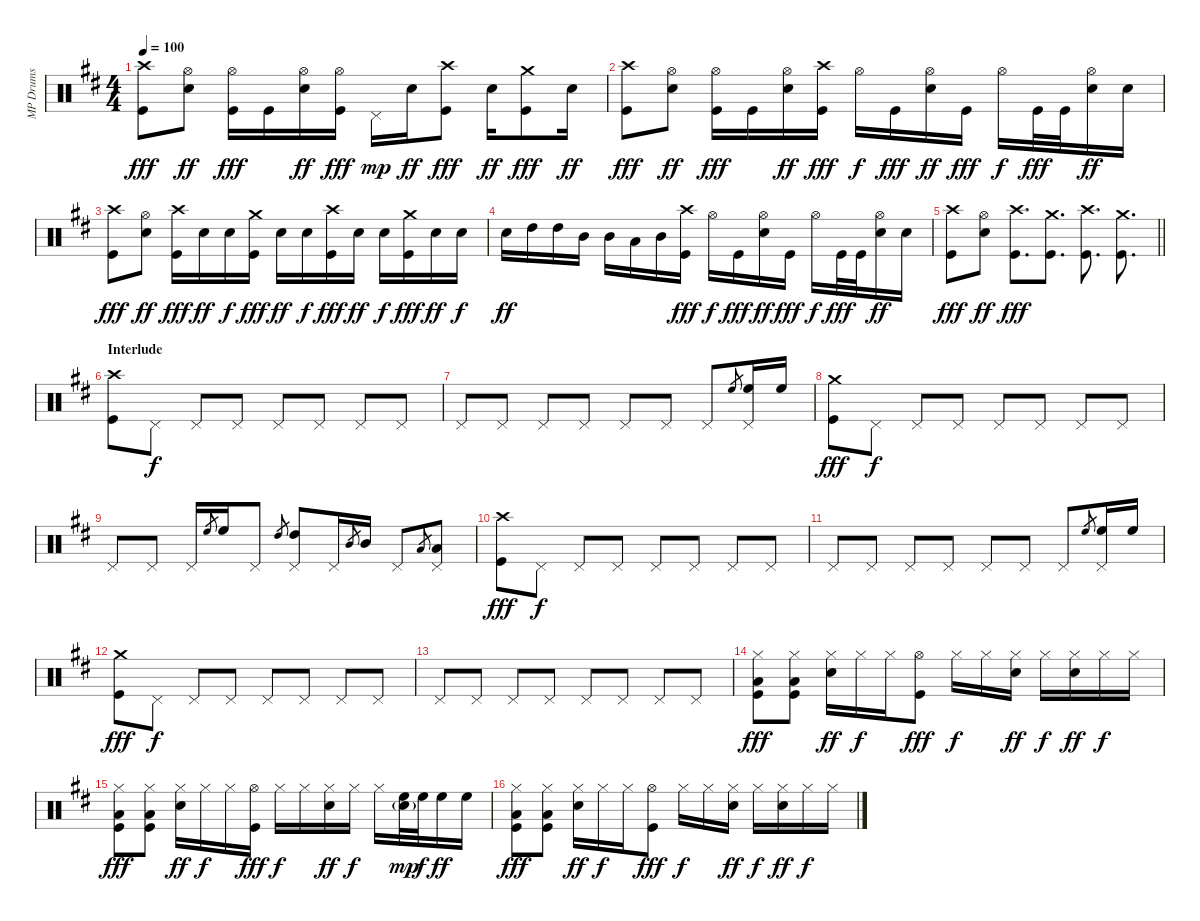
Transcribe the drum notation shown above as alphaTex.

\track ("MP Drums" "MP Drums") {instrument percussion}
\staff {score}
\articulation defaults
\ts (4 4)
\tempo 100
\clef neutral
\ks d
("Crash high (hit)" "Kick (hit)").8{dy fff} ("Hi-Hat (open)" "Snare (hit) 2").8{dy ff} ("Hi-Hat (open)" "Kick (hit)").16{dy fff} "Kick (hit)".16 ("Hi-Hat (open)" "Snare (hit) 2").16{dy ff} ("Hi-Hat (open)" "Kick (hit)").16{dy fff} "Pedal Hi-Hat (hit)".16{dy mp} "Snare (hit) 2".16{dy ff} ("Crash high (hit)" "Kick (hit)").8{dy fff} "Snare (hit) 2".16{dy ff} ("Crash medium (hit)" "Kick (hit)").8{dy fff} "Snare (hit) 2".16{dy ff} |
("Crash high (hit)" "Kick (hit)").8{dy fff} ("Hi-Hat (open)" "Snare (hit) 2").8{dy ff} ("Hi-Hat (open)" "Kick (hit)").16{dy fff} "Kick (hit)".16 ("Hi-Hat (open)" "Snare (hit) 2").16{dy ff} ("Crash high (hit)" "Kick (hit)").16{dy fff} "Hi-Hat (open)".16{dy f} "Kick (hit)".16{dy fff} ("Hi-Hat (open)" "Snare (hit) 2").16{dy ff} "Kick (hit)".16{dy fff} "Hi-Hat (open)".16{dy f} "Kick (hit)".32{dy fff} "Kick (hit)".32 ("Hi-Hat (open)" "Snare (hit) 2").16{dy ff} "Snare (hit) 2".16 |
("Crash high (hit)" "Kick (hit)").8{dy fff} ("Hi-Hat (open)" "Snare (hit) 2").8{dy ff} ("Crash high (hit)" "Kick (hit)").16{dy fff} "Snare (hit) 2".16{dy ff} "Snare (hit) 2".16{dy f} ("Crash medium (hit)" "Kick (hit)").16{dy fff} "Snare (hit) 2".16{dy ff} "Snare (hit) 2".16{dy f} ("Crash high (hit)" "Kick (hit)").16{dy fff} "Snare (hit) 2".16{dy ff} "Snare (hit) 2".16{dy f} ("Crash medium (hit)" "Kick (hit)").16{dy fff} "Snare (hit) 2".16{dy ff} "Snare (hit) 2".16{dy f} |
"Snare (hit) 2".16{dy ff} "High Tom (hit)".16 "High Tom (hit)".16 "Mid Tom (hit)".16 "Mid Tom (hit)".16 "Low Tom (hit)".16 "Mid Tom (hit)".16 ("Crash high (hit)" "Kick (hit)").16{dy fff} "Hi-Hat (open)".16{dy f} "Kick (hit)".16{dy fff} ("Hi-Hat (open)" "Snare (hit) 2").16{dy ff} "Kick (hit)".16{dy fff} "Hi-Hat (open)".16{dy f} "Kick (hit)".32{dy fff} "Kick (hit)".32 ("Hi-Hat (open)" "Snare (hit) 2").16{dy ff} "Snare (hit) 2".16 |
\barLineRight lightlight
("Crash high (hit)" "Kick (hit)").8{dy fff} ("Hi-Hat (open)" "Snare (hit) 2").8{dy ff} ("Crash high (hit)" "Kick (hit)").8{d dy fff} ("Crash medium (hit)" "Kick (hit)").8{d} ("Crash high (hit)" "Kick (hit)").8{d} ("Crash medium (hit)" "Kick (hit)").8{d} |
\section ("" "Interlude")
("Crash high (hit)" "Kick (hit)").8 "Pedal Hi-Hat (hit)".8{dy f} "Pedal Hi-Hat (hit)".8 "Pedal Hi-Hat (hit)".8 "Pedal Hi-Hat (hit)".8 "Pedal Hi-Hat (hit)".8 "Pedal Hi-Hat (hit)".8 "Pedal Hi-Hat (hit)".8 |
"Pedal Hi-Hat (hit)".8 "Pedal Hi-Hat (hit)".8 "Pedal Hi-Hat (hit)".8 "Pedal Hi-Hat (hit)".8 "Pedal Hi-Hat (hit)".8 "Pedal Hi-Hat (hit)".8 "Pedal Hi-Hat (hit)".8 "High Floor Tom (hit)".8{gr} ("High Floor Tom (hit)" "Pedal Hi-Hat (hit)").16 "High Floor Tom (hit)".16 |
("Crash medium (hit)" "Kick (hit)").8{dy fff} "Pedal Hi-Hat (hit)".8{dy f} "Pedal Hi-Hat (hit)".8 "Pedal Hi-Hat (hit)".8 "Pedal Hi-Hat (hit)".8 "Pedal Hi-Hat (hit)".8 "Pedal Hi-Hat (hit)".8 "Pedal Hi-Hat (hit)".8 |
"Pedal Hi-Hat (hit)".8 "Pedal Hi-Hat (hit)".8 "Pedal Hi-Hat (hit)".16 "High Floor Tom (hit)".8{gr} "High Floor Tom (hit)".16 "Pedal Hi-Hat (hit)".8 "High Tom (hit)".8{gr} ("High Tom (hit)" "Pedal Hi-Hat (hit)").8 "Pedal Hi-Hat (hit)".16 "Mid Tom (hit)".8{gr} "Mid Tom (hit)".16 "Pedal Hi-Hat (hit)".8 "Low Tom (hit)".8{gr} ("Low Tom (hit)" "Pedal Hi-Hat (hit)").8 |
("Crash high (hit)" "Kick (hit)").8{dy fff} "Pedal Hi-Hat (hit)".8{dy f} "Pedal Hi-Hat (hit)".8 "Pedal Hi-Hat (hit)".8 "Pedal Hi-Hat (hit)".8 "Pedal Hi-Hat (hit)".8 "Pedal Hi-Hat (hit)".8 "Pedal Hi-Hat (hit)".8 |
"Pedal Hi-Hat (hit)".8 "Pedal Hi-Hat (hit)".8 "Pedal Hi-Hat (hit)".8 "Pedal Hi-Hat (hit)".8 "Pedal Hi-Hat (hit)".8 "Pedal Hi-Hat (hit)".8 "Pedal Hi-Hat (hit)".8 "High Floor Tom (hit)".8{gr} ("High Floor Tom (hit)" "Pedal Hi-Hat (hit)").16 "High Floor Tom (hit)".16 |
("Crash medium (hit)" "Kick (hit)").8{dy fff} "Pedal Hi-Hat (hit)".8{dy f} "Pedal Hi-Hat (hit)".8 "Pedal Hi-Hat (hit)".8 "Pedal Hi-Hat (hit)".8 "Pedal Hi-Hat (hit)".8 "Pedal Hi-Hat (hit)".8 "Pedal Hi-Hat (hit)".8 |
"Pedal Hi-Hat (hit)".8 "Pedal Hi-Hat (hit)".8 "Pedal Hi-Hat (hit)".8 "Pedal Hi-Hat (hit)".8 "Pedal Hi-Hat (hit)".8 "Pedal Hi-Hat (hit)".8 "Pedal Hi-Hat (hit)".8 "Pedal Hi-Hat (hit)".8 |
("Hi-Hat (closed)" "Low Tom (hit)" "Kick (hit)").8{dy fff} ("Hi-Hat (closed)" "Low Tom (hit)" "Kick (hit)").8 ("Hi-Hat (closed)" "Snare (hit) 2").16{dy ff} "Hi-Hat (closed)".16{dy f} "Hi-Hat (closed)".16 ("Hi-Hat (open)" "Kick (hit)").8{dy fff} "Hi-Hat (closed)".16{dy f} "Hi-Hat (closed)".16 ("Hi-Hat (closed)" "Snare (hit) 2").16{dy ff} "Hi-Hat (closed)".16{dy f} ("Hi-Hat (closed)" "Snare (hit) 2").16{dy ff} "Hi-Hat (closed)".16{dy f} "Hi-Hat (closed)".16 |
("Hi-Hat (closed)" "Low Tom (hit)" "Kick (hit)").8{dy fff} ("Hi-Hat (closed)" "Low Tom (hit)" "Kick (hit)").8 ("Hi-Hat (closed)" "Snare (hit) 2").16{dy ff} "Hi-Hat (closed)".16{dy f} "Hi-Hat (closed)".16 ("Hi-Hat (open)" "Kick (hit)").16{dy fff} "Hi-Hat (closed)".16{dy f} "Hi-Hat (closed)".16 ("Hi-Hat (closed)" "Snare (hit) 2").16{dy ff} "Hi-Hat (closed)".16{dy f} "Hi-Hat (closed)".16 ("High Floor Tom (hit)" "Snare (hit) 2"{g}).32{dy mp} "High Floor Tom (hit)".32{dy f} "High Floor Tom (hit)".16{dy ff} "High Floor Tom (hit)".16 |
("Hi-Hat (closed)" "Low Tom (hit)" "Kick (hit)").8{dy fff} ("Hi-Hat (closed)" "Low Tom (hit)" "Kick (hit)").8 ("Hi-Hat (closed)" "Snare (hit) 2").16{dy ff} "Hi-Hat (closed)".16{dy f} "Hi-Hat (closed)".16 ("Hi-Hat (open)" "Kick (hit)").8{dy fff} "Hi-Hat (closed)".16{dy f} "Hi-Hat (closed)".16 ("Hi-Hat (closed)" "Snare (hit) 2").16{dy ff} "Hi-Hat (closed)".16{dy f} ("Hi-Hat (closed)" "Snare (hit) 2").16{dy ff} "Hi-Hat (closed)".16{dy f} "Hi-Hat (closed)".16
